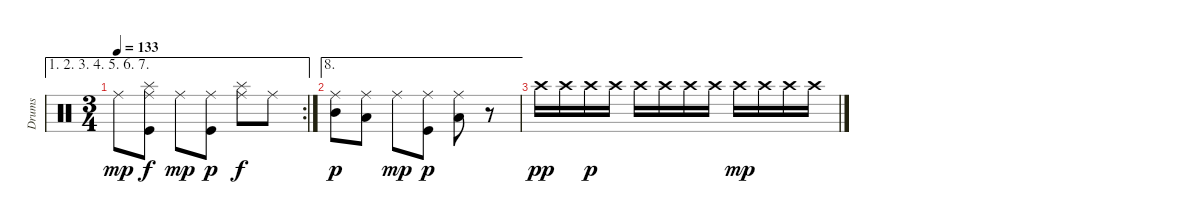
\track ("Drums" "Drums") {instrument percussion}
\staff {score}
\articulation defaults
\ae (1 2 3 4 5 6 7)
\rc 2
\ts (3 4)
\tempo 133
\clef neutral
\ks c "Ride (middle)".8{dy mp}
("Ride (middle)" "Splash (hit)" "Kick (hit)").8{dy f} "Ride (middle)".8{dy mp} ("Ride (middle)" "Kick (hit)").8{dy p} ("Ride (middle)" "Splash (hit)").8{dy f} "Ride (middle)".8 |
\ae 8
("Ride (middle)" "Mid Tom (hit)").8{dy p} ("Ride (middle)" "Low Tom (hit)").8 "Ride (middle)".8{dy mp} ("Ride (middle)" "Kick (hit)").8{dy p} ("Ride (middle)" "Low Tom (hit)").8 r.8 |
"Crash high (hit)".16{dy pp} "Crash high (hit)".16 "Crash high (hit)".16{dy p} "Crash high (hit)".16 "Crash high (hit)".16 "Crash high (hit)".16 "Crash high (hit)".16 "Crash high (hit)".16 "Crash high (hit)".16{dy mp} "Crash high (hit)".16 "Crash high (hit)".16 "Crash high (hit)".16
